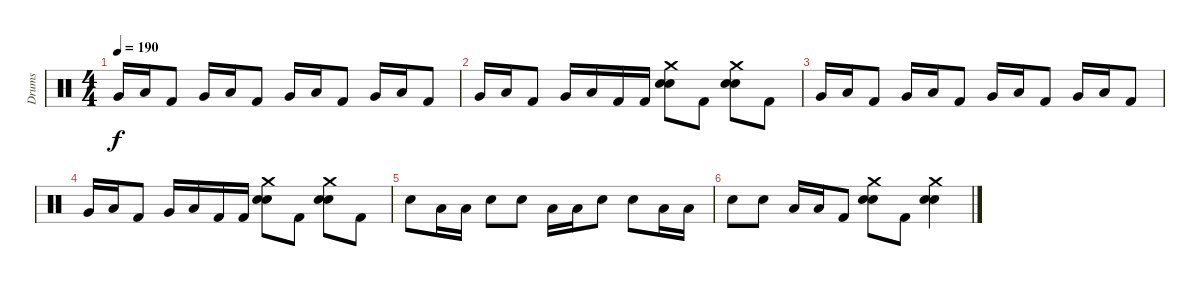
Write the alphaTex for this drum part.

\track ("Drums" "Drums") {instrument percussion}
\staff {score}
\articulation defaults
\ts (4 4)
\tempo 190
\clef neutral
\ks c "Very Low Tom (hit)".16{dy f} "Low Tom (hit)".16 "Kick (hit) 2".8 "Very Low Tom (hit)".16 "Low Tom (hit)".16 "Kick (hit) 2".8 "Very Low Tom (hit)".16 "Low Tom (hit)".16 "Kick (hit) 2".8 "Very Low Tom (hit)".16 "Low Tom (hit)".16 "Kick (hit) 2".8
|
"Very Low Tom (hit)".16 "Low Tom (hit)".16 "Kick (hit) 2".8 "Very Low Tom (hit)".16 "Low Tom (hit)".16 "Kick (hit) 2".16 "Kick (hit) 2".16 ("Crash medium (hit)" "Electric Snare (hit)" "Snare (hit) 2").8 "Kick (hit) 2".8 ("Crash medium (hit)" "Electric Snare (hit)" "Snare (hit) 2").8 "Kick (hit) 2".8 |
"Very Low Tom (hit)".16 "Low Tom (hit)".16 "Kick (hit) 2".8 "Very Low Tom (hit)".16 "Low Tom (hit)".16 "Kick (hit) 2".8 "Very Low Tom (hit)".16 "Low Tom (hit)".16 "Kick (hit) 2".8 "Very Low Tom (hit)".16 "Low Tom (hit)".16 "Kick (hit) 2".8 |
"Very Low Tom (hit)".16 "Low Tom (hit)".16 "Kick (hit) 2".8 "Very Low Tom (hit)".16 "Low Tom (hit)".16 "Kick (hit) 2".16 "Kick (hit) 2".16 ("Crash medium (hit)" "Electric Snare (hit)" "Snare (hit) 2").8 "Kick (hit) 2".8 ("Crash medium (hit)" "Electric Snare (hit)" "Snare (hit) 2").8 "Kick (hit) 2".8 |
"Electric Snare (hit)".8 "Low Tom (hit)".16 "Low Tom (hit)".16 "Electric Snare (hit)".8 "Electric Snare (hit)".8 "Low Tom (hit)".16 "Low Tom (hit)".16 "Electric Snare (hit)".8 "Electric Snare (hit)".8 "Low Tom (hit)".16 "Low Tom (hit)".16 |
"Electric Snare (hit)".8 "Electric Snare (hit)".8 "Low Tom (hit)".16 "Low Tom (hit)".16 "Kick (hit) 2".8 ("Crash medium (hit)" "Electric Snare (hit)" "Snare (hit) 2").8 "Kick (hit) 2".8 ("Crash medium (hit)" "Electric Snare (hit)" "Snare (hit) 2").4
